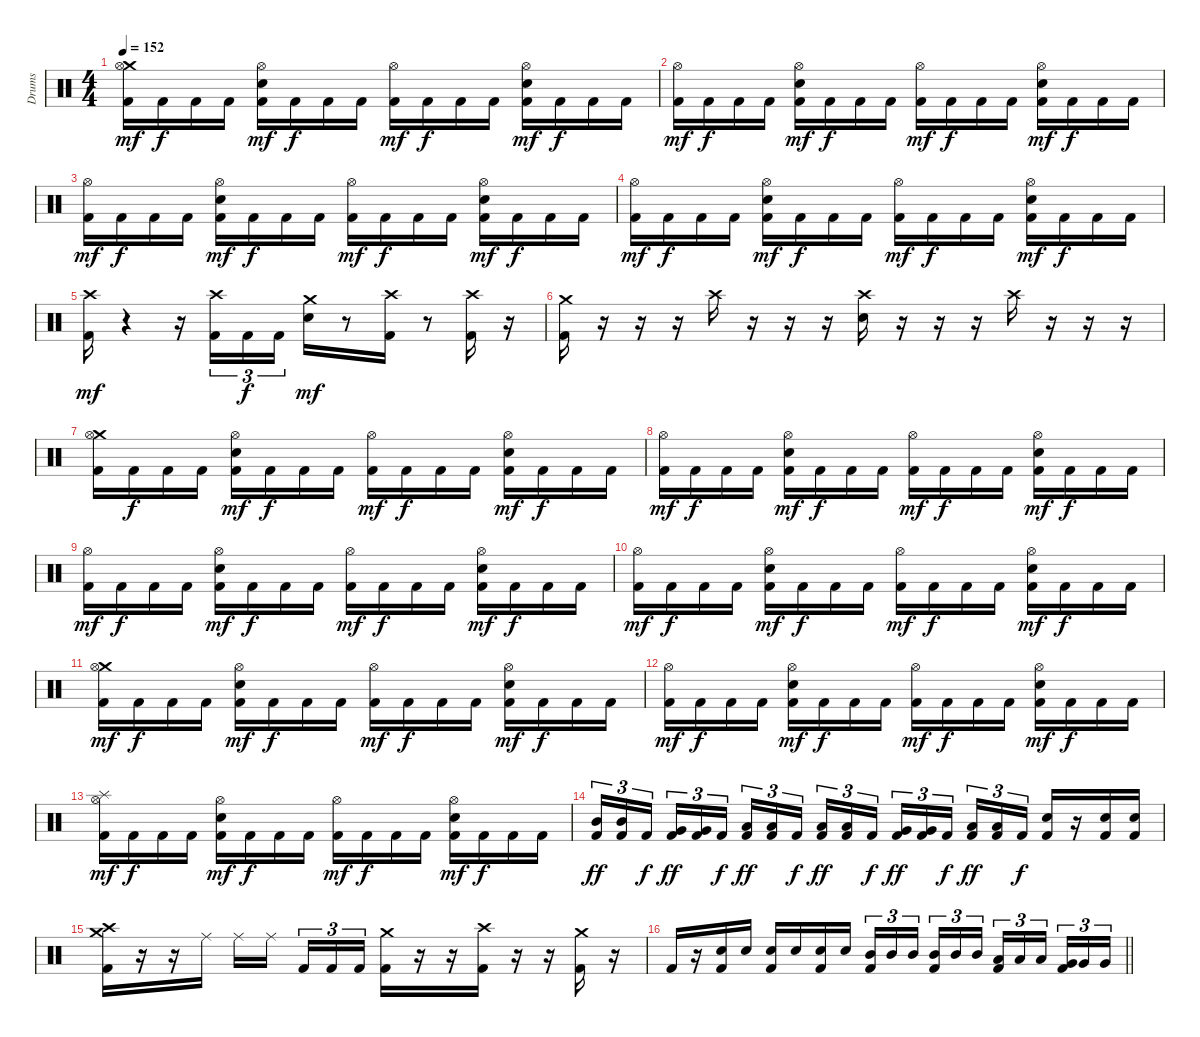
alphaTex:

\track ("Drums" "Drums") {instrument percussion}
\staff {score}
\articulation defaults
\ts (4 4)
\tempo 152
\clef neutral
\ks c
("Crash medium (hit)" "Hi-Hat (open)" "Kick (hit) 2").16{dy mf} "Kick (hit) 2".16{dy f} "Kick (hit) 2".16 "Kick (hit) 2".16 ("Hi-Hat (open)" "Snare (hit) 2" "Kick (hit) 2").16{dy mf} "Kick (hit) 2".16{dy f} "Kick (hit) 2".16 "Kick (hit) 2".16 ("Hi-Hat (open)" "Kick (hit) 2").16{dy mf} "Kick (hit) 2".16{dy f} "Kick (hit) 2".16 "Kick (hit) 2".16 ("Hi-Hat (open)" "Snare (hit) 2" "Kick (hit) 2").16{dy mf} "Kick (hit) 2".16{dy f} "Kick (hit) 2".16 "Kick (hit) 2".16 |
("Hi-Hat (open)" "Kick (hit) 2").16{dy mf} "Kick (hit) 2".16{dy f} "Kick (hit) 2".16 "Kick (hit) 2".16 ("Hi-Hat (open)" "Snare (hit) 2" "Kick (hit) 2").16{dy mf} "Kick (hit) 2".16{dy f} "Kick (hit) 2".16 "Kick (hit) 2".16 ("Hi-Hat (open)" "Kick (hit) 2").16{dy mf} "Kick (hit) 2".16{dy f} "Kick (hit) 2".16 "Kick (hit) 2".16 ("Hi-Hat (open)" "Snare (hit) 2" "Kick (hit) 2").16{dy mf} "Kick (hit) 2".16{dy f} "Kick (hit) 2".16 "Kick (hit) 2".16 |
("Hi-Hat (open)" "Kick (hit) 2").16{dy mf} "Kick (hit) 2".16{dy f} "Kick (hit) 2".16 "Kick (hit) 2".16 ("Hi-Hat (open)" "Snare (hit) 2" "Kick (hit) 2").16{dy mf} "Kick (hit) 2".16{dy f} "Kick (hit) 2".16 "Kick (hit) 2".16 ("Hi-Hat (open)" "Kick (hit) 2").16{dy mf} "Kick (hit) 2".16{dy f} "Kick (hit) 2".16 "Kick (hit) 2".16 ("Hi-Hat (open)" "Snare (hit) 2" "Kick (hit) 2").16{dy mf} "Kick (hit) 2".16{dy f} "Kick (hit) 2".16 "Kick (hit) 2".16 |
("Hi-Hat (open)" "Kick (hit) 2").16{dy mf} "Kick (hit) 2".16{dy f} "Kick (hit) 2".16 "Kick (hit) 2".16 ("Hi-Hat (open)" "Snare (hit) 2" "Kick (hit) 2").16{dy mf} "Kick (hit) 2".16{dy f} "Kick (hit) 2".16 "Kick (hit) 2".16 ("Hi-Hat (open)" "Kick (hit) 2").16{dy mf} "Kick (hit) 2".16{dy f} "Kick (hit) 2".16 "Kick (hit) 2".16 ("Hi-Hat (open)" "Snare (hit) 2" "Kick (hit) 2").16{dy mf} "Kick (hit) 2".16{dy f} "Kick (hit) 2".16 "Kick (hit) 2".16 |
("Crash high (hit)" "Kick (hit) 2").16{dy mf} r.4 r.16 ("Crash high (hit)" "Kick (hit) 2").16{tu (3 2)} "Kick (hit) 2".16{tu (3 2) dy f} "Kick (hit) 2".16{tu (3 2)} ("Crash medium (hit)" "Snare (hit) 2").16{dy mf} r.8 ("Crash high (hit)" "Kick (hit) 2").16 r.8 ("Crash high (hit)" "Kick (hit) 2").16 r.16 |
("Crash medium (hit)" "Kick (hit) 2").16 r.16 r.16 r.16 "Crash high (hit)".16 r.16 r.16 r.16 ("Crash high (hit)" "Snare (hit) 2").16 r.16 r.16 r.16 "Crash high (hit)".16 r.16 r.16 r.16 |
("Crash medium (hit)" "Hi-Hat (open)" "Kick (hit) 2").16 "Kick (hit) 2".16{dy f} "Kick (hit) 2".16 "Kick (hit) 2".16 ("Hi-Hat (open)" "Snare (hit) 2" "Kick (hit) 2").16{dy mf} "Kick (hit) 2".16{dy f} "Kick (hit) 2".16 "Kick (hit) 2".16 ("Hi-Hat (open)" "Kick (hit) 2").16{dy mf} "Kick (hit) 2".16{dy f} "Kick (hit) 2".16 "Kick (hit) 2".16 ("Hi-Hat (open)" "Snare (hit) 2" "Kick (hit) 2").16{dy mf} "Kick (hit) 2".16{dy f} "Kick (hit) 2".16 "Kick (hit) 2".16 |
("Hi-Hat (open)" "Kick (hit) 2").16{dy mf} "Kick (hit) 2".16{dy f} "Kick (hit) 2".16 "Kick (hit) 2".16 ("Hi-Hat (open)" "Snare (hit) 2" "Kick (hit) 2").16{dy mf} "Kick (hit) 2".16{dy f} "Kick (hit) 2".16 "Kick (hit) 2".16 ("Hi-Hat (open)" "Kick (hit) 2").16{dy mf} "Kick (hit) 2".16{dy f} "Kick (hit) 2".16 "Kick (hit) 2".16 ("Hi-Hat (open)" "Snare (hit) 2" "Kick (hit) 2").16{dy mf} "Kick (hit) 2".16{dy f} "Kick (hit) 2".16 "Kick (hit) 2".16 |
("Hi-Hat (open)" "Kick (hit) 2").16{dy mf} "Kick (hit) 2".16{dy f} "Kick (hit) 2".16 "Kick (hit) 2".16 ("Hi-Hat (open)" "Snare (hit) 2" "Kick (hit) 2").16{dy mf} "Kick (hit) 2".16{dy f} "Kick (hit) 2".16 "Kick (hit) 2".16 ("Hi-Hat (open)" "Kick (hit) 2").16{dy mf} "Kick (hit) 2".16{dy f} "Kick (hit) 2".16 "Kick (hit) 2".16 ("Hi-Hat (open)" "Snare (hit) 2" "Kick (hit) 2").16{dy mf} "Kick (hit) 2".16{dy f} "Kick (hit) 2".16 "Kick (hit) 2".16 |
("Hi-Hat (open)" "Kick (hit) 2").16{dy mf} "Kick (hit) 2".16{dy f} "Kick (hit) 2".16 "Kick (hit) 2".16 ("Hi-Hat (open)" "Snare (hit) 2" "Kick (hit) 2").16{dy mf} "Kick (hit) 2".16{dy f} "Kick (hit) 2".16 "Kick (hit) 2".16 ("Hi-Hat (open)" "Kick (hit) 2").16{dy mf} "Kick (hit) 2".16{dy f} "Kick (hit) 2".16 "Kick (hit) 2".16 ("Hi-Hat (open)" "Snare (hit) 2" "Kick (hit) 2").16{dy mf} "Kick (hit) 2".16{dy f} "Kick (hit) 2".16 "Kick (hit) 2".16 |
("Crash medium (hit)" "Hi-Hat (open)" "Kick (hit) 2").16{dy mf} "Kick (hit) 2".16{dy f} "Kick (hit) 2".16 "Kick (hit) 2".16 ("Hi-Hat (open)" "Snare (hit) 2" "Kick (hit) 2").16{dy mf} "Kick (hit) 2".16{dy f} "Kick (hit) 2".16 "Kick (hit) 2".16 ("Hi-Hat (open)" "Kick (hit) 2").16{dy mf} "Kick (hit) 2".16{dy f} "Kick (hit) 2".16 "Kick (hit) 2".16 ("Hi-Hat (open)" "Snare (hit) 2" "Kick (hit) 2").16{dy mf} "Kick (hit) 2".16{dy f} "Kick (hit) 2".16 "Kick (hit) 2".16 |
("Hi-Hat (open)" "Kick (hit) 2").16{dy mf} "Kick (hit) 2".16{dy f} "Kick (hit) 2".16 "Kick (hit) 2".16 ("Hi-Hat (open)" "Snare (hit) 2" "Kick (hit) 2").16{dy mf} "Kick (hit) 2".16{dy f} "Kick (hit) 2".16 "Kick (hit) 2".16 ("Hi-Hat (open)" "Kick (hit) 2").16{dy mf} "Kick (hit) 2".16{dy f} "Kick (hit) 2".16 "Kick (hit) 2".16 ("Hi-Hat (open)" "Snare (hit) 2" "Kick (hit) 2").16{dy mf} "Kick (hit) 2".16{dy f} "Kick (hit) 2".16 "Kick (hit) 2".16 |
("Splash (hit)" "Hi-Hat (open)" "Kick (hit) 2").16{dy mf} "Kick (hit) 2".16{dy f} "Kick (hit) 2".16 "Kick (hit) 2".16 ("Hi-Hat (open)" "Snare (hit) 2" "Kick (hit) 2").16{dy mf} "Kick (hit) 2".16{dy f} "Kick (hit) 2".16 "Kick (hit) 2".16 ("Hi-Hat (open)" "Kick (hit) 2").16{dy mf} "Kick (hit) 2".16{dy f} "Kick (hit) 2".16 "Kick (hit) 2".16 ("Hi-Hat (open)" "Snare (hit) 2" "Kick (hit) 2").16{dy mf} "Kick (hit) 2".16{dy f} "Kick (hit) 2".16 "Kick (hit) 2".16 |
("Mid Tom (hit)" "Kick (hit) 2").16{tu (3 2) dy ff} ("Mid Tom (hit)" "Kick (hit) 2").16{tu (3 2)} "Kick (hit) 2".16{tu (3 2) dy f} ("Very Low Tom (hit)" "Kick (hit) 2").16{tu (3 2) dy ff} ("Very Low Tom (hit)" "Kick (hit) 2").16{tu (3 2)} "Kick (hit) 2".16{tu (3 2) dy f} ("Low Tom (hit)" "Kick (hit) 2").16{tu (3 2) dy ff} ("Low Tom (hit)" "Kick (hit) 2").16{tu (3 2)} "Kick (hit) 2".16{tu (3 2) dy f} ("Low Floor Tom (hit)" "Kick (hit) 2").16{tu (3 2) dy ff} ("Low Floor Tom (hit)" "Kick (hit) 2").16{tu (3 2)} "Kick (hit) 2".16{tu (3 2) dy f} ("Very Low Tom (hit)" "Kick (hit) 2").16{tu (3 2) dy ff} ("Very Low Tom (hit)" "Kick (hit) 2").16{tu (3 2)} "Kick (hit) 2".16{tu (3 2) dy f} ("Low Floor Tom (hit)" "Kick (hit) 2").16{tu (3 2) dy ff} ("Low Floor Tom (hit)" "Kick (hit) 2").16{tu (3 2)} "Kick (hit) 2".16{tu (3 2) dy f} ("Snare (hit) 2" "Kick (hit) 2").16 r.16 ("Snare (hit) 2" "Kick (hit) 2").16 ("Snare (hit) 2" "Kick (hit) 2").16 |
("Crash medium (hit)" "Crash high (hit)" "Kick (hit) 2").16 r.16 r.16 "Ride (middle)".16 "Ride (middle)".16 "Ride (middle)".16 "Kick (hit) 2".16{tu (3 2)} "Kick (hit) 2".16{tu (3 2)} "Kick (hit) 2".16{tu (3 2)} ("Crash medium (hit)" "Kick (hit) 2").16 r.16 r.16 ("Crash high (hit)" "Kick (hit) 2").16 r.16 r.16 ("Crash medium (hit)" "Kick (hit) 2").16 r.16 |
\barLineRight lightlight "Kick (hit) 2".16
r.16 ("Snare (hit) 2" "Kick (hit) 2").16 "Snare (hit) 2".16 ("Snare (hit) 2" "Kick (hit) 2").16 "Snare (hit) 2".16 ("Snare (hit) 2" "Kick (hit) 2").16 "Snare (hit) 2".16 ("Mid Tom (hit)" "Kick (hit) 2").16{tu (3 2)} "Mid Tom (hit)".16{tu (3 2)} "Mid Tom (hit)".16{tu (3 2)} ("Mid Tom (hit)" "Kick (hit) 2").16{tu (3 2)} "Mid Tom (hit)".16{tu (3 2)} "Mid Tom (hit)".16{tu (3 2)} ("Low Tom (hit)" "Kick (hit) 2").16{tu (3 2)} "Low Tom (hit)".16{tu (3 2)} "Low Tom (hit)".16{tu (3 2)} ("Very Low Tom (hit)" "Kick (hit) 2").16{tu (3 2)} "Very Low Tom (hit)".16{tu (3 2)} "Very Low Tom (hit)".16{tu (3 2)}
